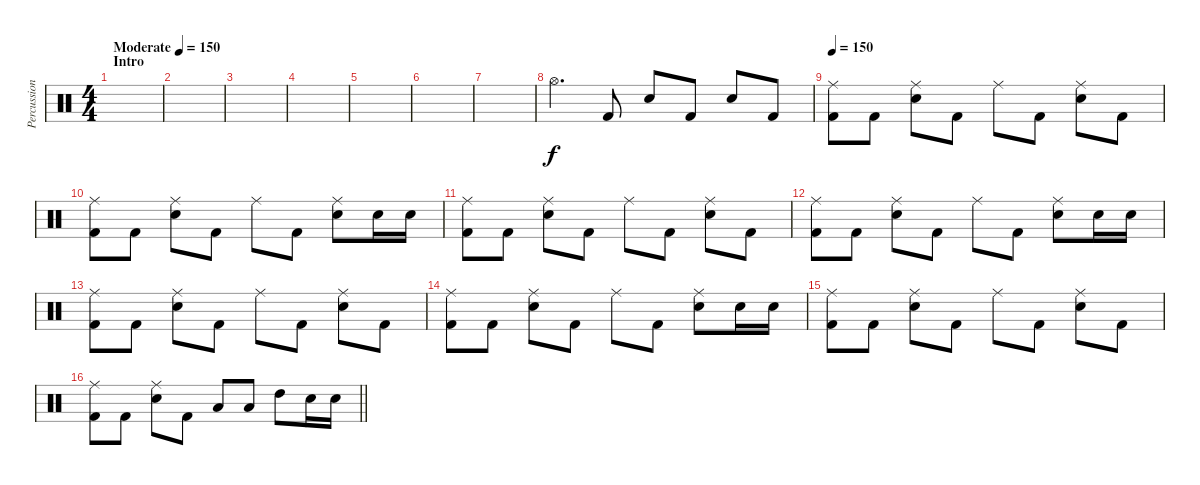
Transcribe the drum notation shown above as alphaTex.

\track ("Percussion" "Percussion") {instrument percussion}
\staff {score}
\articulation defaults
\ts (4 4)
\section ("" "Intro")
\tempo (150 "Moderate")
\clef neutral
\ks c
|
|
|
|
|
|
|
"Hi-Hat (open)".4{d} "Kick (hit) 2".8 "Snare (hit) 2".8 "Kick (hit) 2".8 "Snare (hit) 2".8 "Kick (hit) 2".8 |
\tempo 150
("Ride (middle)" "Kick (hit) 2").8 "Kick (hit) 2".8 ("Ride (middle)" "Snare (hit) 2").8 "Kick (hit) 2".8 "Ride (middle)".8 "Kick (hit) 2".8 ("Ride (middle)" "Snare (hit) 2").8 "Kick (hit) 2".8 |
("Ride (middle)" "Kick (hit) 2").8 "Kick (hit) 2".8 ("Ride (middle)" "Snare (hit) 2").8 "Kick (hit) 2".8 "Ride (middle)".8 "Kick (hit) 2".8 ("Ride (middle)" "Snare (hit) 2").8 "Snare (hit) 2".16 "Snare (hit) 2".16 |
("Ride (middle)" "Kick (hit) 2").8 "Kick (hit) 2".8 ("Ride (middle)" "Snare (hit) 2").8 "Kick (hit) 2".8 "Ride (middle)".8 "Kick (hit) 2".8 ("Ride (middle)" "Snare (hit) 2").8 "Kick (hit) 2".8 |
("Ride (middle)" "Kick (hit) 2").8 "Kick (hit) 2".8 ("Ride (middle)" "Snare (hit) 2").8 "Kick (hit) 2".8 "Ride (middle)".8 "Kick (hit) 2".8 ("Ride (middle)" "Snare (hit) 2").8 "Snare (hit) 2".16 "Snare (hit) 2".16 |
("Ride (middle)" "Kick (hit) 2").8 "Kick (hit) 2".8 ("Ride (middle)" "Snare (hit) 2").8 "Kick (hit) 2".8 "Ride (middle)".8 "Kick (hit) 2".8 ("Ride (middle)" "Snare (hit) 2").8 "Kick (hit) 2".8 |
("Ride (middle)" "Kick (hit) 2").8 "Kick (hit) 2".8 ("Ride (middle)" "Snare (hit) 2").8 "Kick (hit) 2".8 "Ride (middle)".8 "Kick (hit) 2".8 ("Ride (middle)" "Snare (hit) 2").8 "Snare (hit) 2".16 "Snare (hit) 2".16 |
("Ride (middle)" "Kick (hit) 2").8 "Kick (hit) 2".8 ("Ride (middle)" "Snare (hit) 2").8 "Kick (hit) 2".8 "Ride (middle)".8 "Kick (hit) 2".8 ("Ride (middle)" "Snare (hit) 2").8 "Kick (hit) 2".8 |
\barLineRight lightlight
("Ride (middle)" "Kick (hit) 2").8 "Kick (hit) 2".8 ("Ride (middle)" "Snare (hit) 2").8 "Kick (hit) 2".8 "Low Floor Tom (hit)".8 "Low Floor Tom (hit)".8 "High Tom (hit)".8 "Snare (hit) 2".16 "Snare (hit) 2".16
